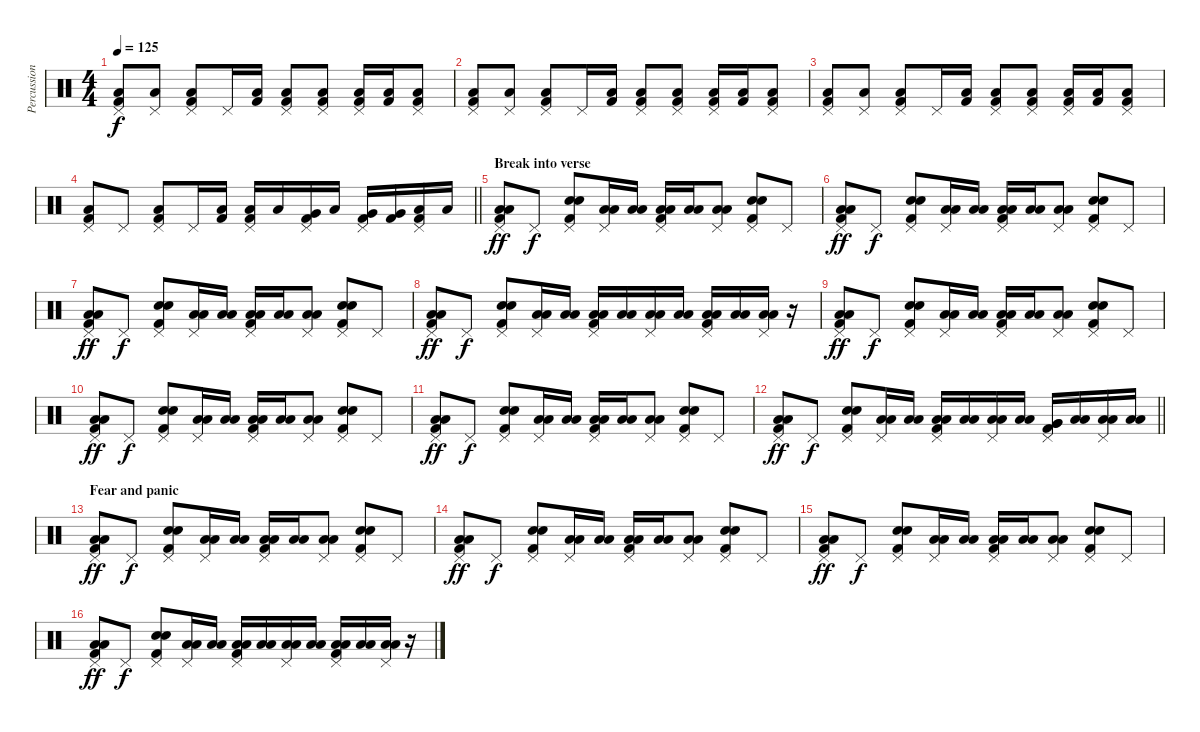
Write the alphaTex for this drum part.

\track ("Percussion2" "Percussion") {instrument percussion}
\staff {score}
\articulation defaults
\ts (4 4)
\tempo 125
\clef neutral
\ks c
("Pedal Hi-Hat (hit)" "Low Floor Tom (hit)" "Kick (hit) 2").8{dy f} ("Pedal Hi-Hat (hit)" "Low Tom (hit)").8 ("Pedal Hi-Hat (hit)" "Low Floor Tom (hit)" "Kick (hit) 2").8 "Pedal Hi-Hat (hit)".16 ("Low Floor Tom (hit)" "Kick (hit) 2").16 ("Pedal Hi-Hat (hit)" "Low Tom (hit)" "Kick (hit) 2").8 ("Pedal Hi-Hat (hit)" "Low Floor Tom (hit)" "Kick (hit) 2").8 ("Pedal Hi-Hat (hit)" "Low Floor Tom (hit)" "Kick (hit) 2").16 ("Low Tom (hit)" "Kick (hit) 2").16 ("Pedal Hi-Hat (hit)" "Low Floor Tom (hit)" "Kick (hit) 2").8 |
("Pedal Hi-Hat (hit)" "Low Floor Tom (hit)" "Kick (hit) 2").8 ("Pedal Hi-Hat (hit)" "Low Tom (hit)").8 ("Pedal Hi-Hat (hit)" "Low Floor Tom (hit)" "Kick (hit) 2").8 "Pedal Hi-Hat (hit)".16 ("Low Floor Tom (hit)" "Kick (hit) 2").16 ("Pedal Hi-Hat (hit)" "Low Tom (hit)" "Kick (hit) 2").8 ("Pedal Hi-Hat (hit)" "Low Floor Tom (hit)" "Kick (hit) 2").8 ("Pedal Hi-Hat (hit)" "Low Floor Tom (hit)" "Kick (hit) 2").16 ("Low Tom (hit)" "Kick (hit) 2").16 ("Pedal Hi-Hat (hit)" "Low Floor Tom (hit)" "Kick (hit) 2").8 |
("Pedal Hi-Hat (hit)" "Low Floor Tom (hit)" "Kick (hit) 2").8 ("Pedal Hi-Hat (hit)" "Low Tom (hit)").8 ("Pedal Hi-Hat (hit)" "Low Floor Tom (hit)" "Kick (hit) 2").8 "Pedal Hi-Hat (hit)".16 ("Low Floor Tom (hit)" "Kick (hit) 2").16 ("Pedal Hi-Hat (hit)" "Low Tom (hit)" "Kick (hit) 2").8 ("Pedal Hi-Hat (hit)" "Low Floor Tom (hit)" "Kick (hit) 2").8 ("Pedal Hi-Hat (hit)" "Low Floor Tom (hit)" "Kick (hit) 2").16 ("Low Tom (hit)" "Kick (hit) 2").16 ("Pedal Hi-Hat (hit)" "Low Floor Tom (hit)" "Kick (hit) 2").8 |
\barLineRight lightlight
("Pedal Hi-Hat (hit)" "Low Floor Tom (hit)" "Kick (hit) 2").8 "Pedal Hi-Hat (hit)".8 ("Pedal Hi-Hat (hit)" "Low Tom (hit)" "Kick (hit) 2").8 "Pedal Hi-Hat (hit)".16 ("Low Tom (hit)" "Kick (hit) 2").16 ("Pedal Hi-Hat (hit)" "Low Floor Tom (hit)" "Kick (hit) 2").16 "Low Tom (hit)".16 ("Pedal Hi-Hat (hit)" "Very Low Tom (hit)" "Kick (hit) 2").16 "Low Tom (hit)".16 ("Pedal Hi-Hat (hit)" "Very Low Tom (hit)" "Kick (hit) 2").16 ("Very Low Tom (hit)" "Kick (hit) 2").16 ("Pedal Hi-Hat (hit)" "Low Floor Tom (hit)" "Kick (hit) 2").16 "Low Floor Tom (hit)".16 |
\section ("" "Break into verse")
("Pedal Hi-Hat (hit)" "Low Floor Tom (hit)" "Low Floor Tom (hit)" "Kick (hit) 2").8{dy ff} "Pedal Hi-Hat (hit)".8{dy f} ("Pedal Hi-Hat (hit)" "Electric Snare (hit)" "Electric Snare (hit)" "Kick (hit) 2").8 ("Pedal Hi-Hat (hit)" "Low Floor Tom (hit)" "Low Floor Tom (hit)").16 ("Low Tom (hit)" "Low Tom (hit)").16 ("Pedal Hi-Hat (hit)" "Low Floor Tom (hit)" "Low Floor Tom (hit)" "Kick (hit) 2").16 ("Low Floor Tom (hit)" "Low Floor Tom (hit)").16 ("Pedal Hi-Hat (hit)" "Low Floor Tom (hit)" "Low Floor Tom (hit)").8 ("Pedal Hi-Hat (hit)" "Electric Snare (hit)" "Electric Snare (hit)" "Kick (hit) 2").8 "Pedal Hi-Hat (hit)".8 |
("Pedal Hi-Hat (hit)" "Low Floor Tom (hit)" "Low Floor Tom (hit)" "Kick (hit) 2").8{dy ff} "Pedal Hi-Hat (hit)".8{dy f} ("Pedal Hi-Hat (hit)" "Electric Snare (hit)" "Electric Snare (hit)" "Kick (hit) 2").8 ("Pedal Hi-Hat (hit)" "Low Floor Tom (hit)" "Low Floor Tom (hit)").16 ("Low Tom (hit)" "Low Tom (hit)").16 ("Pedal Hi-Hat (hit)" "Low Floor Tom (hit)" "Low Floor Tom (hit)" "Kick (hit) 2").16 ("Low Floor Tom (hit)" "Low Floor Tom (hit)").16 ("Pedal Hi-Hat (hit)" "Low Floor Tom (hit)" "Low Floor Tom (hit)").8 ("Pedal Hi-Hat (hit)" "Electric Snare (hit)" "Electric Snare (hit)" "Kick (hit) 2").8 "Pedal Hi-Hat (hit)".8 |
("Pedal Hi-Hat (hit)" "Low Floor Tom (hit)" "Low Floor Tom (hit)" "Kick (hit) 2").8{dy ff} "Pedal Hi-Hat (hit)".8{dy f} ("Pedal Hi-Hat (hit)" "Electric Snare (hit)" "Electric Snare (hit)" "Kick (hit) 2").8 ("Pedal Hi-Hat (hit)" "Low Floor Tom (hit)" "Low Floor Tom (hit)").16 ("Low Tom (hit)" "Low Tom (hit)").16 ("Pedal Hi-Hat (hit)" "Low Floor Tom (hit)" "Low Floor Tom (hit)" "Kick (hit) 2").16 ("Low Floor Tom (hit)" "Low Floor Tom (hit)").16 ("Pedal Hi-Hat (hit)" "Low Floor Tom (hit)" "Low Floor Tom (hit)").8 ("Pedal Hi-Hat (hit)" "Electric Snare (hit)" "Electric Snare (hit)" "Kick (hit) 2").8 "Pedal Hi-Hat (hit)".8 |
("Pedal Hi-Hat (hit)" "Low Floor Tom (hit)" "Low Floor Tom (hit)" "Kick (hit) 2").8{dy ff} "Pedal Hi-Hat (hit)".8{dy f} ("Pedal Hi-Hat (hit)" "Electric Snare (hit)" "Electric Snare (hit)" "Kick (hit) 2").8 ("Pedal Hi-Hat (hit)" "Low Floor Tom (hit)" "Low Floor Tom (hit)").16 ("Low Tom (hit)" "Low Tom (hit)").16 ("Pedal Hi-Hat (hit)" "Low Floor Tom (hit)" "Low Floor Tom (hit)" "Kick (hit) 2").16 ("Low Floor Tom (hit)" "Low Floor Tom (hit)").16 ("Pedal Hi-Hat (hit)" "Low Floor Tom (hit)" "Low Floor Tom (hit)").16 ("Low Tom (hit)" "Low Tom (hit)").16 ("Pedal Hi-Hat (hit)" "Low Floor Tom (hit)" "Low Floor Tom (hit)" "Kick (hit) 2").16 ("Low Floor Tom (hit)" "Low Floor Tom (hit)").16 ("Pedal Hi-Hat (hit)" "Low Floor Tom (hit)" "Low Floor Tom (hit)").16 r.16 |
("Pedal Hi-Hat (hit)" "Low Floor Tom (hit)" "Low Floor Tom (hit)" "Kick (hit) 2").8{dy ff} "Pedal Hi-Hat (hit)".8{dy f} ("Pedal Hi-Hat (hit)" "Electric Snare (hit)" "Electric Snare (hit)" "Kick (hit) 2").8 ("Pedal Hi-Hat (hit)" "Low Floor Tom (hit)" "Low Floor Tom (hit)").16 ("Low Tom (hit)" "Low Tom (hit)").16 ("Pedal Hi-Hat (hit)" "Low Floor Tom (hit)" "Low Floor Tom (hit)" "Kick (hit) 2").16 ("Low Floor Tom (hit)" "Low Floor Tom (hit)").16 ("Pedal Hi-Hat (hit)" "Low Floor Tom (hit)" "Low Floor Tom (hit)").8 ("Pedal Hi-Hat (hit)" "Electric Snare (hit)" "Electric Snare (hit)" "Kick (hit) 2").8 "Pedal Hi-Hat (hit)".8 |
("Pedal Hi-Hat (hit)" "Low Floor Tom (hit)" "Low Floor Tom (hit)" "Kick (hit) 2").8{dy ff} "Pedal Hi-Hat (hit)".8{dy f} ("Pedal Hi-Hat (hit)" "Electric Snare (hit)" "Electric Snare (hit)" "Kick (hit) 2").8 ("Pedal Hi-Hat (hit)" "Low Floor Tom (hit)" "Low Floor Tom (hit)").16 ("Low Tom (hit)" "Low Tom (hit)").16 ("Pedal Hi-Hat (hit)" "Low Floor Tom (hit)" "Low Floor Tom (hit)" "Kick (hit) 2").16 ("Low Floor Tom (hit)" "Low Floor Tom (hit)").16 ("Pedal Hi-Hat (hit)" "Low Floor Tom (hit)" "Low Floor Tom (hit)").8 ("Pedal Hi-Hat (hit)" "Electric Snare (hit)" "Electric Snare (hit)" "Kick (hit) 2").8 "Pedal Hi-Hat (hit)".8 |
("Pedal Hi-Hat (hit)" "Low Floor Tom (hit)" "Low Floor Tom (hit)" "Kick (hit) 2").8{dy ff} "Pedal Hi-Hat (hit)".8{dy f} ("Pedal Hi-Hat (hit)" "Electric Snare (hit)" "Electric Snare (hit)" "Kick (hit) 2").8 ("Pedal Hi-Hat (hit)" "Low Floor Tom (hit)" "Low Floor Tom (hit)").16 ("Low Tom (hit)" "Low Tom (hit)").16 ("Pedal Hi-Hat (hit)" "Low Floor Tom (hit)" "Low Floor Tom (hit)" "Kick (hit) 2").16 ("Low Floor Tom (hit)" "Low Floor Tom (hit)").16 ("Pedal Hi-Hat (hit)" "Low Floor Tom (hit)" "Low Floor Tom (hit)").8 ("Pedal Hi-Hat (hit)" "Electric Snare (hit)" "Electric Snare (hit)" "Kick (hit) 2").8 "Pedal Hi-Hat (hit)".8 |
\barLineRight lightlight
("Pedal Hi-Hat (hit)" "Low Floor Tom (hit)" "Low Floor Tom (hit)" "Kick (hit) 2").8{dy ff} "Pedal Hi-Hat (hit)".8{dy f} ("Pedal Hi-Hat (hit)" "Electric Snare (hit)" "Electric Snare (hit)" "Kick (hit) 2").8 ("Pedal Hi-Hat (hit)" "Low Floor Tom (hit)" "Low Floor Tom (hit)").16 ("Low Tom (hit)" "Low Tom (hit)").16 ("Pedal Hi-Hat (hit)" "Low Floor Tom (hit)" "Low Floor Tom (hit)" "Kick (hit) 2").16 ("Low Floor Tom (hit)" "Low Floor Tom (hit)").16 ("Pedal Hi-Hat (hit)" "Low Floor Tom (hit)" "Low Floor Tom (hit)").16 ("Low Tom (hit)" "Low Tom (hit)").16 ("Pedal Hi-Hat (hit)" "Very Low Tom (hit)" "Very Low Tom (hit)" "Kick (hit) 2").16 ("Low Floor Tom (hit)" "Low Floor Tom (hit)").16 ("Pedal Hi-Hat (hit)" "Low Floor Tom (hit)" "Low Floor Tom (hit)").16 ("Low Floor Tom (hit)" "Low Floor Tom (hit)").16 |
\section ("" "Fear and panic")
("Pedal Hi-Hat (hit)" "Low Floor Tom (hit)" "Low Floor Tom (hit)" "Kick (hit) 2").8{dy ff} "Pedal Hi-Hat (hit)".8{dy f} ("Pedal Hi-Hat (hit)" "Electric Snare (hit)" "Electric Snare (hit)" "Kick (hit) 2").8 ("Pedal Hi-Hat (hit)" "Low Floor Tom (hit)" "Low Floor Tom (hit)").16 ("Low Tom (hit)" "Low Tom (hit)").16 ("Pedal Hi-Hat (hit)" "Low Floor Tom (hit)" "Low Floor Tom (hit)" "Kick (hit) 2").16 ("Low Floor Tom (hit)" "Low Floor Tom (hit)").16 ("Pedal Hi-Hat (hit)" "Low Floor Tom (hit)" "Low Floor Tom (hit)").8 ("Pedal Hi-Hat (hit)" "Electric Snare (hit)" "Electric Snare (hit)" "Kick (hit) 2").8 "Pedal Hi-Hat (hit)".8 |
("Pedal Hi-Hat (hit)" "Low Floor Tom (hit)" "Low Floor Tom (hit)" "Kick (hit) 2").8{dy ff} "Pedal Hi-Hat (hit)".8{dy f} ("Pedal Hi-Hat (hit)" "Electric Snare (hit)" "Electric Snare (hit)" "Kick (hit) 2").8 ("Pedal Hi-Hat (hit)" "Low Floor Tom (hit)" "Low Floor Tom (hit)").16 ("Low Tom (hit)" "Low Tom (hit)").16 ("Pedal Hi-Hat (hit)" "Low Floor Tom (hit)" "Low Floor Tom (hit)" "Kick (hit) 2").16 ("Low Floor Tom (hit)" "Low Floor Tom (hit)").16 ("Pedal Hi-Hat (hit)" "Low Floor Tom (hit)" "Low Floor Tom (hit)").8 ("Pedal Hi-Hat (hit)" "Electric Snare (hit)" "Electric Snare (hit)" "Kick (hit) 2").8 "Pedal Hi-Hat (hit)".8 |
("Pedal Hi-Hat (hit)" "Low Floor Tom (hit)" "Low Floor Tom (hit)" "Kick (hit) 2").8{dy ff} "Pedal Hi-Hat (hit)".8{dy f} ("Pedal Hi-Hat (hit)" "Electric Snare (hit)" "Electric Snare (hit)" "Kick (hit) 2").8 ("Pedal Hi-Hat (hit)" "Low Floor Tom (hit)" "Low Floor Tom (hit)").16 ("Low Tom (hit)" "Low Tom (hit)").16 ("Pedal Hi-Hat (hit)" "Low Floor Tom (hit)" "Low Floor Tom (hit)" "Kick (hit) 2").16 ("Low Floor Tom (hit)" "Low Floor Tom (hit)").16 ("Pedal Hi-Hat (hit)" "Low Floor Tom (hit)" "Low Floor Tom (hit)").8 ("Pedal Hi-Hat (hit)" "Electric Snare (hit)" "Electric Snare (hit)" "Kick (hit) 2").8 "Pedal Hi-Hat (hit)".8 |
("Pedal Hi-Hat (hit)" "Low Floor Tom (hit)" "Low Floor Tom (hit)" "Kick (hit) 2").8{dy ff} "Pedal Hi-Hat (hit)".8{dy f} ("Pedal Hi-Hat (hit)" "Electric Snare (hit)" "Electric Snare (hit)" "Kick (hit) 2").8 ("Pedal Hi-Hat (hit)" "Low Floor Tom (hit)" "Low Floor Tom (hit)").16 ("Low Tom (hit)" "Low Tom (hit)").16 ("Pedal Hi-Hat (hit)" "Low Floor Tom (hit)" "Low Floor Tom (hit)" "Kick (hit) 2").16 ("Low Floor Tom (hit)" "Low Floor Tom (hit)").16 ("Pedal Hi-Hat (hit)" "Low Floor Tom (hit)" "Low Floor Tom (hit)").16 ("Low Tom (hit)" "Low Tom (hit)").16 ("Pedal Hi-Hat (hit)" "Low Floor Tom (hit)" "Low Floor Tom (hit)" "Kick (hit) 2").16 ("Low Floor Tom (hit)" "Low Floor Tom (hit)").16 ("Pedal Hi-Hat (hit)" "Low Floor Tom (hit)" "Low Floor Tom (hit)").16 r.16
